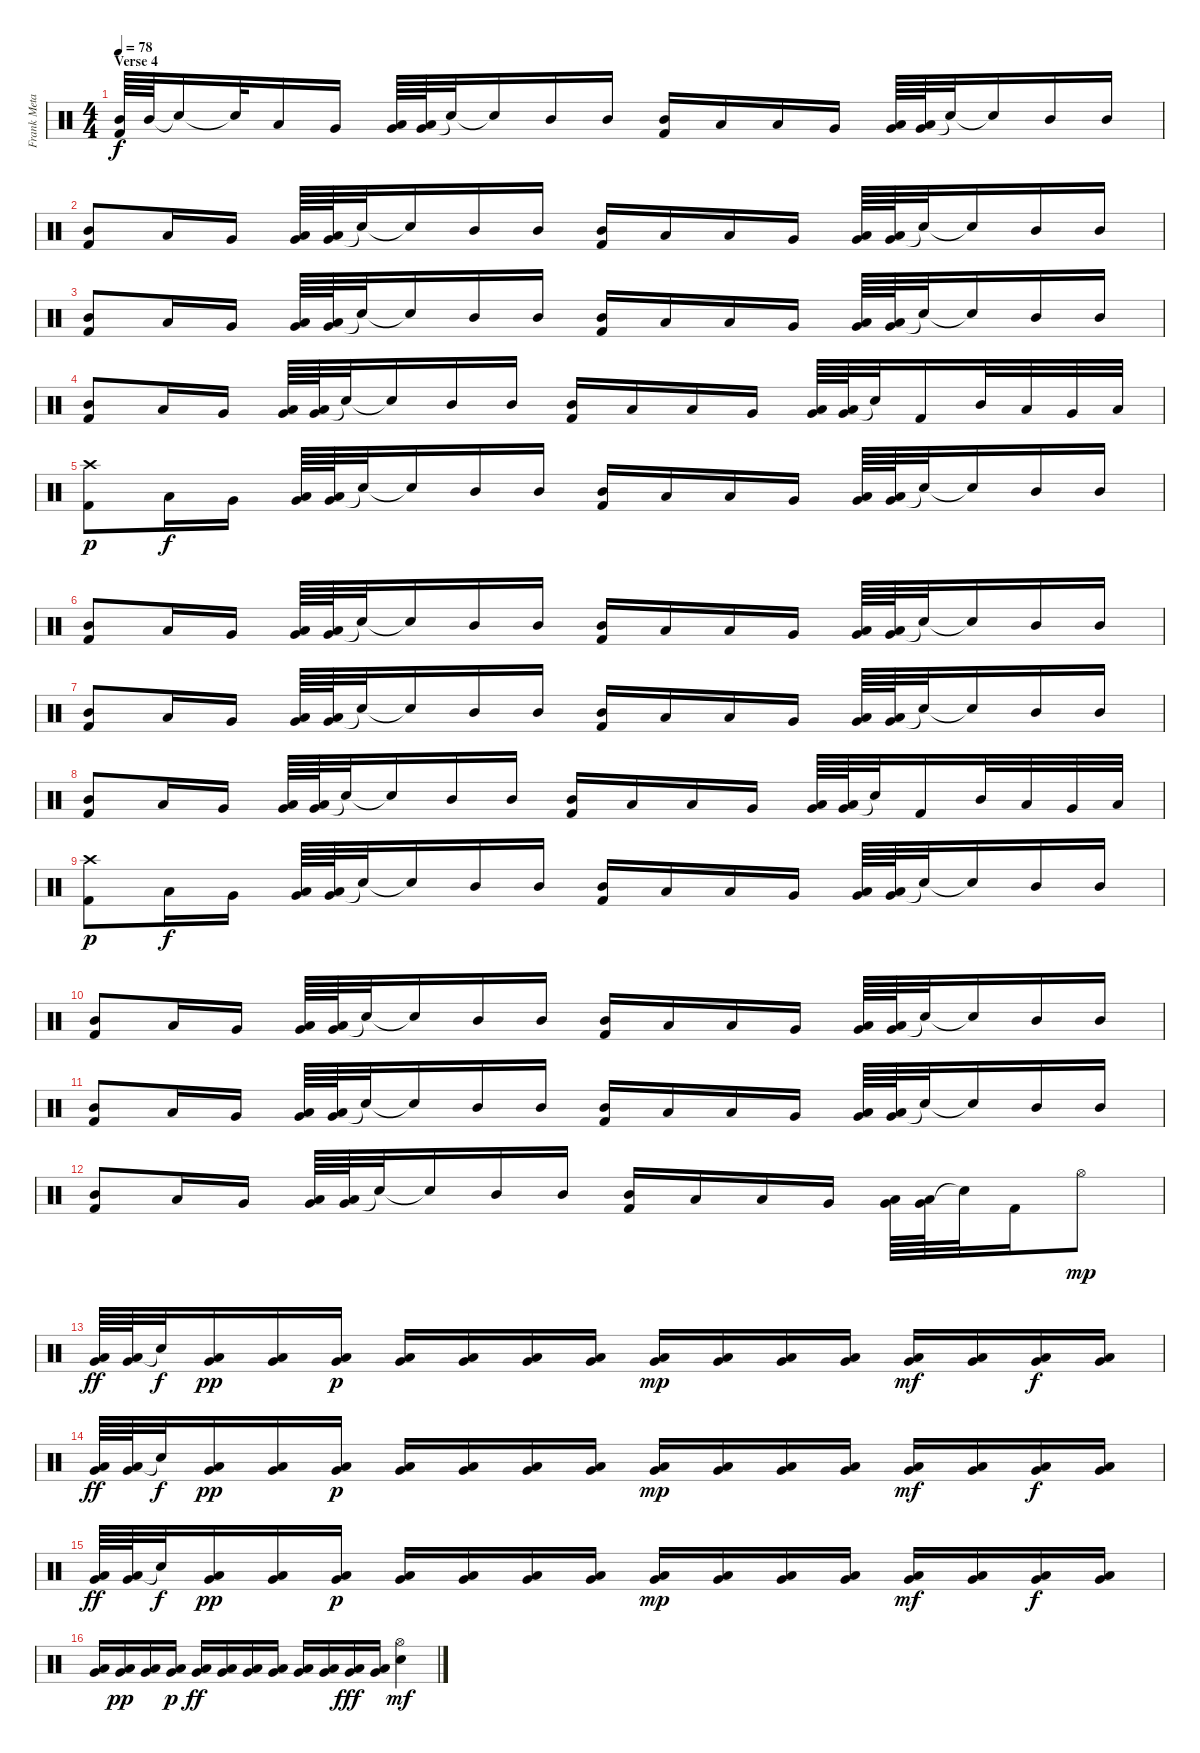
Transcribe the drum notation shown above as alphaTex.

\track ("Frank Metayer" "Frank Meta") {instrument percussion}
\staff {score}
\articulation defaults
\ts (4 4)
\section ("" "Verse 4")
\tempo 78
\clef neutral
\ks c
("Kick (hit) 2" "Mid Tom (hit)").64{dy f} "Mid Tom (hit)".64 "Snare (hit)"{t}.16 "Snare (hit)"{t}.32 "Low Tom (hit)".16 "Very Low Tom (hit)".16 ("Very Low Tom (hit)" "Low Floor Tom (hit)").64 ("Very Low Tom (hit)" "Low Floor Tom (hit)").64 "Snare (hit)"{t}.32 "Snare (hit)"{t}.16 "Mid Tom (hit)".16 "Mid Tom (hit)".16 ("Kick (hit) 2" "Mid Tom (hit)").16 "Low Tom (hit)".16 "Low Tom (hit)".16 "Very Low Tom (hit)".16 ("Very Low Tom (hit)" "Low Floor Tom (hit)").64 ("Very Low Tom (hit)" "Low Floor Tom (hit)").64 "Snare (hit)"{t}.32 "Snare (hit)"{t}.16 "Mid Tom (hit)".16 "Mid Tom (hit)".16 |
("Kick (hit) 2" "Mid Tom (hit)").8 "Low Tom (hit)".16 "Very Low Tom (hit)".16 ("Very Low Tom (hit)" "Low Floor Tom (hit)").64 ("Very Low Tom (hit)" "Low Floor Tom (hit)").64 "Snare (hit)"{t}.32 "Snare (hit)"{t}.16 "Mid Tom (hit)".16 "Mid Tom (hit)".16 ("Kick (hit) 2" "Mid Tom (hit)").16 "Low Tom (hit)".16 "Low Tom (hit)".16 "Very Low Tom (hit)".16 ("Very Low Tom (hit)" "Low Floor Tom (hit)").64 ("Very Low Tom (hit)" "Low Floor Tom (hit)").64 "Snare (hit)"{t}.32 "Snare (hit)"{t}.16 "Mid Tom (hit)".16 "Mid Tom (hit)".16 |
("Kick (hit) 2" "Mid Tom (hit)").8 "Low Tom (hit)".16 "Very Low Tom (hit)".16 ("Very Low Tom (hit)" "Low Floor Tom (hit)").64 ("Very Low Tom (hit)" "Low Floor Tom (hit)").64 "Snare (hit)"{t}.32 "Snare (hit)"{t}.16 "Mid Tom (hit)".16 "Mid Tom (hit)".16 ("Kick (hit) 2" "Mid Tom (hit)").16 "Low Tom (hit)".16 "Low Tom (hit)".16 "Very Low Tom (hit)".16 ("Very Low Tom (hit)" "Low Floor Tom (hit)").64 ("Very Low Tom (hit)" "Low Floor Tom (hit)").64 "Snare (hit)"{t}.32 "Snare (hit)"{t}.16 "Mid Tom (hit)".16 "Mid Tom (hit)".16 |
("Kick (hit) 2" "Mid Tom (hit)").8 "Low Tom (hit)".16 "Very Low Tom (hit)".16 ("Very Low Tom (hit)" "Low Floor Tom (hit)").64 ("Very Low Tom (hit)" "Low Floor Tom (hit)").64 "Snare (hit)"{t}.32 "Snare (hit)"{t}.16 "Mid Tom (hit)".16 "Mid Tom (hit)".16 ("Kick (hit) 2" "Mid Tom (hit)").16 "Low Tom (hit)".16 "Low Tom (hit)".16 "Very Low Tom (hit)".16 ("Very Low Tom (hit)" "Low Floor Tom (hit)").64 ("Very Low Tom (hit)" "Low Floor Tom (hit)").64 "Snare (hit)"{t}.32 "Kick (hit) 2".16 "Mid Tom (hit)".32 "Low Tom (hit)".32 "Very Low Tom (hit)".32 "Low Floor Tom (hit)".32 |
("Kick (hit) 2" "Crash high (hit)").8{dy p} "Low Tom (hit)".16{dy f} "Very Low Tom (hit)".16 ("Very Low Tom (hit)" "Low Floor Tom (hit)").64 ("Very Low Tom (hit)" "Low Floor Tom (hit)").64 "Snare (hit)"{t}.32 "Snare (hit)"{t}.16 "Mid Tom (hit)".16 "Mid Tom (hit)".16 ("Kick (hit) 2" "Mid Tom (hit)").16 "Low Tom (hit)".16 "Low Tom (hit)".16 "Very Low Tom (hit)".16 ("Very Low Tom (hit)" "Low Floor Tom (hit)").64 ("Very Low Tom (hit)" "Low Floor Tom (hit)").64 "Snare (hit)"{t}.32 "Snare (hit)"{t}.16 "Mid Tom (hit)".16 "Mid Tom (hit)".16 |
("Kick (hit) 2" "Mid Tom (hit)").8 "Low Tom (hit)".16 "Very Low Tom (hit)".16 ("Very Low Tom (hit)" "Low Floor Tom (hit)").64 ("Very Low Tom (hit)" "Low Floor Tom (hit)").64 "Snare (hit)"{t}.32 "Snare (hit)"{t}.16 "Mid Tom (hit)".16 "Mid Tom (hit)".16 ("Kick (hit) 2" "Mid Tom (hit)").16 "Low Tom (hit)".16 "Low Tom (hit)".16 "Very Low Tom (hit)".16 ("Very Low Tom (hit)" "Low Floor Tom (hit)").64 ("Very Low Tom (hit)" "Low Floor Tom (hit)").64 "Snare (hit)"{t}.32 "Snare (hit)"{t}.16 "Mid Tom (hit)".16 "Mid Tom (hit)".16 |
("Kick (hit) 2" "Mid Tom (hit)").8 "Low Tom (hit)".16 "Very Low Tom (hit)".16 ("Very Low Tom (hit)" "Low Floor Tom (hit)").64 ("Very Low Tom (hit)" "Low Floor Tom (hit)").64 "Snare (hit)"{t}.32 "Snare (hit)"{t}.16 "Mid Tom (hit)".16 "Mid Tom (hit)".16 ("Kick (hit) 2" "Mid Tom (hit)").16 "Low Tom (hit)".16 "Low Tom (hit)".16 "Very Low Tom (hit)".16 ("Very Low Tom (hit)" "Low Floor Tom (hit)").64 ("Very Low Tom (hit)" "Low Floor Tom (hit)").64 "Snare (hit)"{t}.32 "Snare (hit)"{t}.16 "Mid Tom (hit)".16 "Mid Tom (hit)".16 |
("Kick (hit) 2" "Mid Tom (hit)").8 "Low Tom (hit)".16 "Very Low Tom (hit)".16 ("Very Low Tom (hit)" "Low Floor Tom (hit)").64 ("Very Low Tom (hit)" "Low Floor Tom (hit)").64 "Snare (hit)"{t}.32 "Snare (hit)"{t}.16 "Mid Tom (hit)".16 "Mid Tom (hit)".16 ("Kick (hit) 2" "Mid Tom (hit)").16 "Low Tom (hit)".16 "Low Tom (hit)".16 "Very Low Tom (hit)".16 ("Very Low Tom (hit)" "Low Floor Tom (hit)").64 ("Very Low Tom (hit)" "Low Floor Tom (hit)").64 "Snare (hit)"{t}.32 "Kick (hit) 2".16 "Mid Tom (hit)".32 "Low Tom (hit)".32 "Very Low Tom (hit)".32 "Low Floor Tom (hit)".32 |
("Kick (hit) 2" "Crash high (hit)").8{dy p} "Low Tom (hit)".16{dy f} "Very Low Tom (hit)".16 ("Very Low Tom (hit)" "Low Floor Tom (hit)").64 ("Very Low Tom (hit)" "Low Floor Tom (hit)").64 "Snare (hit)"{t}.32 "Snare (hit)"{t}.16 "Mid Tom (hit)".16 "Mid Tom (hit)".16 ("Kick (hit) 2" "Mid Tom (hit)").16 "Low Tom (hit)".16 "Low Tom (hit)".16 "Very Low Tom (hit)".16 ("Very Low Tom (hit)" "Low Floor Tom (hit)").64 ("Very Low Tom (hit)" "Low Floor Tom (hit)").64 "Snare (hit)"{t}.32 "Snare (hit)"{t}.16 "Mid Tom (hit)".16 "Mid Tom (hit)".16 |
("Kick (hit) 2" "Mid Tom (hit)").8 "Low Tom (hit)".16 "Very Low Tom (hit)".16 ("Very Low Tom (hit)" "Low Floor Tom (hit)").64 ("Very Low Tom (hit)" "Low Floor Tom (hit)").64 "Snare (hit)"{t}.32 "Snare (hit)"{t}.16 "Mid Tom (hit)".16 "Mid Tom (hit)".16 ("Kick (hit) 2" "Mid Tom (hit)").16 "Low Tom (hit)".16 "Low Tom (hit)".16 "Very Low Tom (hit)".16 ("Very Low Tom (hit)" "Low Floor Tom (hit)").64 ("Very Low Tom (hit)" "Low Floor Tom (hit)").64 "Snare (hit)"{t}.32 "Snare (hit)"{t}.16 "Mid Tom (hit)".16 "Mid Tom (hit)".16 |
("Kick (hit) 2" "Mid Tom (hit)").8 "Low Tom (hit)".16 "Very Low Tom (hit)".16 ("Very Low Tom (hit)" "Low Floor Tom (hit)").64 ("Very Low Tom (hit)" "Low Floor Tom (hit)").64 "Snare (hit)"{t}.32 "Snare (hit)"{t}.16 "Mid Tom (hit)".16 "Mid Tom (hit)".16 ("Kick (hit) 2" "Mid Tom (hit)").16 "Low Tom (hit)".16 "Low Tom (hit)".16 "Very Low Tom (hit)".16 ("Very Low Tom (hit)" "Low Floor Tom (hit)").64 ("Very Low Tom (hit)" "Low Floor Tom (hit)").64 "Snare (hit)"{t}.32 "Snare (hit)"{t}.16 "Mid Tom (hit)".16 "Mid Tom (hit)".16 |
("Kick (hit) 2" "Mid Tom (hit)").8 "Low Tom (hit)".16 "Very Low Tom (hit)".16 ("Very Low Tom (hit)" "Low Floor Tom (hit)").64 ("Very Low Tom (hit)" "Low Floor Tom (hit)").64 "Snare (hit)"{t}.32 "Snare (hit)"{t}.16 "Mid Tom (hit)".16 "Mid Tom (hit)".16 ("Kick (hit) 2" "Mid Tom (hit)").16 "Low Tom (hit)".16 "Low Tom (hit)".16 "Very Low Tom (hit)".16 ("Very Low Tom (hit)" "Low Floor Tom (hit)").64 ("Very Low Tom (hit)" "Low Floor Tom (hit)").64 "Snare (hit)"{t}.32 "Kick (hit) 2".16 "Hi-Hat (open)".8{dy mp} |
("Low Tom (hit)" "Very Low Tom (hit)").64{dy ff} ("Low Tom (hit)" "Very Low Tom (hit)").64 "Snare (hit)"{t}.32{dy f} ("Very Low Tom (hit)" "Low Floor Tom (hit)").16{dy pp} ("Very Low Tom (hit)" "Low Floor Tom (hit)").16 ("Very Low Tom (hit)" "Low Floor Tom (hit)").16{dy p} ("Very Low Tom (hit)" "Low Floor Tom (hit)").16 ("Very Low Tom (hit)" "Low Floor Tom (hit)").16 ("Very Low Tom (hit)" "Low Floor Tom (hit)").16 ("Very Low Tom (hit)" "Low Floor Tom (hit)").16 ("Very Low Tom (hit)" "Low Floor Tom (hit)").16{dy mp} ("Very Low Tom (hit)" "Low Floor Tom (hit)").16 ("Very Low Tom (hit)" "Low Floor Tom (hit)").16 ("Very Low Tom (hit)" "Low Floor Tom (hit)").16 ("Very Low Tom (hit)" "Low Floor Tom (hit)").16{dy mf} ("Very Low Tom (hit)" "Low Floor Tom (hit)").16 ("Very Low Tom (hit)" "Low Floor Tom (hit)").16{dy f} ("Very Low Tom (hit)" "Low Floor Tom (hit)").16 |
("Low Tom (hit)" "Very Low Tom (hit)").64{dy ff} ("Low Tom (hit)" "Very Low Tom (hit)").64 "Snare (hit)"{t}.32{dy f} ("Very Low Tom (hit)" "Low Floor Tom (hit)").16{dy pp} ("Very Low Tom (hit)" "Low Floor Tom (hit)").16 ("Very Low Tom (hit)" "Low Floor Tom (hit)").16{dy p} ("Very Low Tom (hit)" "Low Floor Tom (hit)").16 ("Very Low Tom (hit)" "Low Floor Tom (hit)").16 ("Very Low Tom (hit)" "Low Floor Tom (hit)").16 ("Very Low Tom (hit)" "Low Floor Tom (hit)").16 ("Very Low Tom (hit)" "Low Floor Tom (hit)").16{dy mp} ("Very Low Tom (hit)" "Low Floor Tom (hit)").16 ("Very Low Tom (hit)" "Low Floor Tom (hit)").16 ("Very Low Tom (hit)" "Low Floor Tom (hit)").16 ("Very Low Tom (hit)" "Low Floor Tom (hit)").16{dy mf} ("Very Low Tom (hit)" "Low Floor Tom (hit)").16 ("Very Low Tom (hit)" "Low Floor Tom (hit)").16{dy f} ("Very Low Tom (hit)" "Low Floor Tom (hit)").16 |
("Low Tom (hit)" "Very Low Tom (hit)").64{dy ff} ("Low Tom (hit)" "Very Low Tom (hit)").64 "Snare (hit)"{t}.32{dy f} ("Very Low Tom (hit)" "Low Floor Tom (hit)").16{dy pp} ("Very Low Tom (hit)" "Low Floor Tom (hit)").16 ("Very Low Tom (hit)" "Low Floor Tom (hit)").16{dy p} ("Very Low Tom (hit)" "Low Floor Tom (hit)").16 ("Very Low Tom (hit)" "Low Floor Tom (hit)").16 ("Very Low Tom (hit)" "Low Floor Tom (hit)").16 ("Very Low Tom (hit)" "Low Floor Tom (hit)").16 ("Very Low Tom (hit)" "Low Floor Tom (hit)").16{dy mp} ("Very Low Tom (hit)" "Low Floor Tom (hit)").16 ("Very Low Tom (hit)" "Low Floor Tom (hit)").16 ("Very Low Tom (hit)" "Low Floor Tom (hit)").16 ("Very Low Tom (hit)" "Low Floor Tom (hit)").16{dy mf} ("Very Low Tom (hit)" "Low Floor Tom (hit)").16 ("Very Low Tom (hit)" "Low Floor Tom (hit)").16{dy f} ("Very Low Tom (hit)" "Low Floor Tom (hit)").16 |
("Very Low Tom (hit)" "Low Floor Tom (hit)").16 ("Very Low Tom (hit)" "Low Floor Tom (hit)").16{dy pp} ("Very Low Tom (hit)" "Low Floor Tom (hit)").16 ("Very Low Tom (hit)" "Low Floor Tom (hit)").16{dy p} ("Very Low Tom (hit)" "Low Floor Tom (hit)").16{dy ff} ("Very Low Tom (hit)" "Low Floor Tom (hit)").16 ("Very Low Tom (hit)" "Low Floor Tom (hit)").16 ("Very Low Tom (hit)" "Low Floor Tom (hit)").16 ("Very Low Tom (hit)" "Low Floor Tom (hit)").16 ("Very Low Tom (hit)" "Low Floor Tom (hit)").16 ("Very Low Tom (hit)" "Low Floor Tom (hit)").16{dy fff} ("Very Low Tom (hit)" "Low Floor Tom (hit)").16 ("Hi-Hat (open)" "Snare (hit) 2").4{dy mf}
